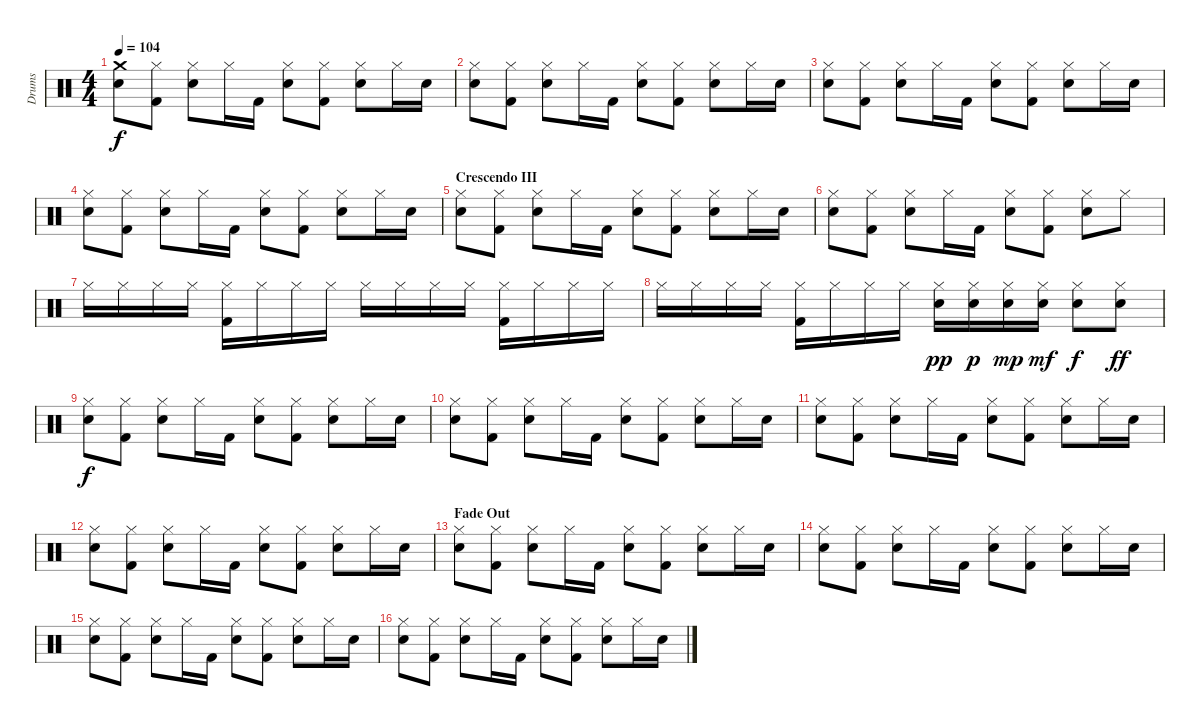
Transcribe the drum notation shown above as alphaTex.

\track ("Drums" "Drums") {instrument percussion}
\staff {score}
\articulation defaults
\ts (4 4)
\tempo 104
\clef neutral
\ks c
("Crash medium (hit)" "Snare (hit) 2").8{dy f} ("Hi-Hat (closed)" "Kick (hit) 2").8 ("Hi-Hat (closed)" "Snare (hit) 2").8 "Hi-Hat (closed)".16 "Kick (hit) 2".16 ("Hi-Hat (closed)" "Snare (hit) 2").8 ("Hi-Hat (closed)" "Kick (hit) 2").8 ("Hi-Hat (closed)" "Snare (hit) 2").8 "Hi-Hat (closed)".16 "Snare (hit) 2".16 |
("Hi-Hat (closed)" "Snare (hit) 2").8 ("Hi-Hat (closed)" "Kick (hit) 2").8 ("Hi-Hat (closed)" "Snare (hit) 2").8 "Hi-Hat (closed)".16 "Kick (hit) 2".16 ("Hi-Hat (closed)" "Snare (hit) 2").8 ("Hi-Hat (closed)" "Kick (hit) 2").8 ("Hi-Hat (closed)" "Snare (hit) 2").8 "Hi-Hat (closed)".16 "Snare (hit) 2".16 |
("Hi-Hat (closed)" "Snare (hit) 2").8 ("Hi-Hat (closed)" "Kick (hit) 2").8 ("Hi-Hat (closed)" "Snare (hit) 2").8 "Hi-Hat (closed)".16 "Kick (hit) 2".16 ("Hi-Hat (closed)" "Snare (hit) 2").8 ("Hi-Hat (closed)" "Kick (hit) 2").8 ("Hi-Hat (closed)" "Snare (hit) 2").8 "Hi-Hat (closed)".16 "Snare (hit) 2".16 |
("Hi-Hat (closed)" "Snare (hit) 2").8 ("Hi-Hat (closed)" "Kick (hit) 2").8 ("Hi-Hat (closed)" "Snare (hit) 2").8 "Hi-Hat (closed)".16 "Kick (hit) 2".16 ("Hi-Hat (closed)" "Snare (hit) 2").8 ("Hi-Hat (closed)" "Kick (hit) 2").8 ("Hi-Hat (closed)" "Snare (hit) 2").8 "Hi-Hat (closed)".16 "Snare (hit) 2".16 |
\section ("" "Crescendo III")
("Hi-Hat (closed)" "Snare (hit) 2").8 ("Hi-Hat (closed)" "Kick (hit) 2").8 ("Hi-Hat (closed)" "Snare (hit) 2").8 "Hi-Hat (closed)".16 "Kick (hit) 2".16 ("Hi-Hat (closed)" "Snare (hit) 2").8 ("Hi-Hat (closed)" "Kick (hit) 2").8 ("Hi-Hat (closed)" "Snare (hit) 2").8 "Hi-Hat (closed)".16 "Snare (hit) 2".16 |
("Hi-Hat (closed)" "Snare (hit) 2").8 ("Hi-Hat (closed)" "Kick (hit) 2").8 ("Hi-Hat (closed)" "Snare (hit) 2").8 "Hi-Hat (closed)".16 "Kick (hit) 2".16 ("Hi-Hat (closed)" "Snare (hit) 2").8 ("Hi-Hat (closed)" "Kick (hit) 2").8 ("Hi-Hat (closed)" "Snare (hit) 2").8 "Hi-Hat (closed)".8 |
"Hi-Hat (closed)".16 "Hi-Hat (closed)".16 "Hi-Hat (closed)".16 "Hi-Hat (closed)".16 ("Hi-Hat (closed)" "Kick (hit) 2").16 "Hi-Hat (closed)".16 "Hi-Hat (closed)".16 "Hi-Hat (closed)".16 "Hi-Hat (closed)".16 "Hi-Hat (closed)".16 "Hi-Hat (closed)".16 "Hi-Hat (closed)".16 ("Hi-Hat (closed)" "Kick (hit) 2").16 "Hi-Hat (closed)".16 "Hi-Hat (closed)".16 "Hi-Hat (closed)".16 |
"Hi-Hat (closed)".16 "Hi-Hat (closed)".16 "Hi-Hat (closed)".16 "Hi-Hat (closed)".16 ("Hi-Hat (closed)" "Kick (hit) 2").16 "Hi-Hat (closed)".16 "Hi-Hat (closed)".16 "Hi-Hat (closed)".16 ("Hi-Hat (closed)" "Snare (hit) 2").16{dy pp} ("Hi-Hat (closed)" "Snare (hit) 2").16{dy p} ("Hi-Hat (closed)" "Snare (hit) 2").16{dy mp} ("Hi-Hat (closed)" "Snare (hit) 2").16{dy mf} ("Hi-Hat (closed)" "Snare (hit) 2").8{dy f} ("Hi-Hat (closed)" "Snare (hit) 2").8{dy ff} |
("Hi-Hat (closed)" "Snare (hit) 2").8{dy f} ("Hi-Hat (closed)" "Kick (hit) 2").8 ("Hi-Hat (closed)" "Snare (hit) 2").8 "Hi-Hat (closed)".16 "Kick (hit) 2".16 ("Hi-Hat (closed)" "Snare (hit) 2").8 ("Hi-Hat (closed)" "Kick (hit) 2").8 ("Hi-Hat (closed)" "Snare (hit) 2").8 "Hi-Hat (closed)".16 "Snare (hit) 2".16 |
("Hi-Hat (closed)" "Snare (hit) 2").8 ("Hi-Hat (closed)" "Kick (hit) 2").8 ("Hi-Hat (closed)" "Snare (hit) 2").8 "Hi-Hat (closed)".16 "Kick (hit) 2".16 ("Hi-Hat (closed)" "Snare (hit) 2").8 ("Hi-Hat (closed)" "Kick (hit) 2").8 ("Hi-Hat (closed)" "Snare (hit) 2").8 "Hi-Hat (closed)".16 "Snare (hit) 2".16 |
("Hi-Hat (closed)" "Snare (hit) 2").8 ("Hi-Hat (closed)" "Kick (hit) 2").8 ("Hi-Hat (closed)" "Snare (hit) 2").8 "Hi-Hat (closed)".16 "Kick (hit) 2".16 ("Hi-Hat (closed)" "Snare (hit) 2").8 ("Hi-Hat (closed)" "Kick (hit) 2").8 ("Hi-Hat (closed)" "Snare (hit) 2").8 "Hi-Hat (closed)".16 "Snare (hit) 2".16 |
("Hi-Hat (closed)" "Snare (hit) 2").8 ("Hi-Hat (closed)" "Kick (hit) 2").8 ("Hi-Hat (closed)" "Snare (hit) 2").8 "Hi-Hat (closed)".16 "Kick (hit) 2".16 ("Hi-Hat (closed)" "Snare (hit) 2").8 ("Hi-Hat (closed)" "Kick (hit) 2").8 ("Hi-Hat (closed)" "Snare (hit) 2").8 "Hi-Hat (closed)".16 "Snare (hit) 2".16 |
\section ("" "Fade Out")
("Hi-Hat (closed)" "Snare (hit) 2").8 ("Hi-Hat (closed)" "Kick (hit) 2").8 ("Hi-Hat (closed)" "Snare (hit) 2").8 "Hi-Hat (closed)".16 "Kick (hit) 2".16 ("Hi-Hat (closed)" "Snare (hit) 2").8 ("Hi-Hat (closed)" "Kick (hit) 2").8 ("Hi-Hat (closed)" "Snare (hit) 2").8 "Hi-Hat (closed)".16 "Snare (hit) 2".16 |
("Hi-Hat (closed)" "Snare (hit) 2").8 ("Hi-Hat (closed)" "Kick (hit) 2").8 ("Hi-Hat (closed)" "Snare (hit) 2").8 "Hi-Hat (closed)".16 "Kick (hit) 2".16 ("Hi-Hat (closed)" "Snare (hit) 2").8 ("Hi-Hat (closed)" "Kick (hit) 2").8 ("Hi-Hat (closed)" "Snare (hit) 2").8 "Hi-Hat (closed)".16 "Snare (hit) 2".16 |
("Hi-Hat (closed)" "Snare (hit) 2").8 ("Hi-Hat (closed)" "Kick (hit) 2").8 ("Hi-Hat (closed)" "Snare (hit) 2").8 "Hi-Hat (closed)".16 "Kick (hit) 2".16 ("Hi-Hat (closed)" "Snare (hit) 2").8 ("Hi-Hat (closed)" "Kick (hit) 2").8 ("Hi-Hat (closed)" "Snare (hit) 2").8 "Hi-Hat (closed)".16 "Snare (hit) 2".16 |
("Hi-Hat (closed)" "Snare (hit) 2").8 ("Hi-Hat (closed)" "Kick (hit) 2").8 ("Hi-Hat (closed)" "Snare (hit) 2").8 "Hi-Hat (closed)".16 "Kick (hit) 2".16 ("Hi-Hat (closed)" "Snare (hit) 2").8 ("Hi-Hat (closed)" "Kick (hit) 2").8 ("Hi-Hat (closed)" "Snare (hit) 2").8 "Hi-Hat (closed)".16 "Snare (hit) 2".16
